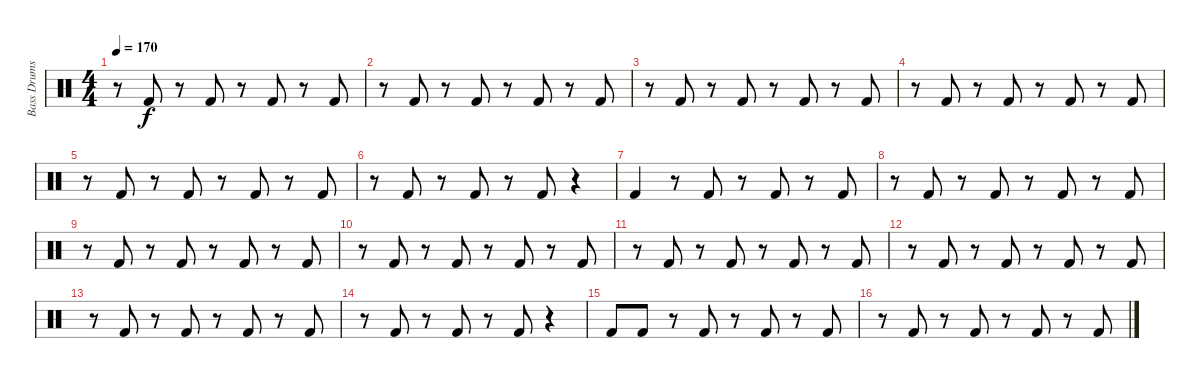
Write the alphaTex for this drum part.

\track ("Bass Drums" "Bass Drums") {instrument percussion}
\staff {score}
\articulation defaults
\ts (4 4)
\tempo 170
\clef neutral
\ks c
r.8{dy f} "Kick (hit) 2".8 r.8 "Kick (hit) 2".8 r.8 "Kick (hit) 2".8 r.8 "Kick (hit) 2".8 |
r.8 "Kick (hit) 2".8 r.8 "Kick (hit) 2".8 r.8 "Kick (hit) 2".8 r.8 "Kick (hit) 2".8 |
r.8 "Kick (hit) 2".8 r.8 "Kick (hit) 2".8 r.8 "Kick (hit) 2".8 r.8 "Kick (hit) 2".8 |
r.8 "Kick (hit) 2".8 r.8 "Kick (hit) 2".8 r.8 "Kick (hit) 2".8 r.8 "Kick (hit) 2".8 |
r.8 "Kick (hit) 2".8 r.8 "Kick (hit) 2".8 r.8 "Kick (hit) 2".8 r.8 "Kick (hit) 2".8 |
r.8 "Kick (hit) 2".8 r.8 "Kick (hit) 2".8 r.8 "Kick (hit) 2".8 r.4 |
"Kick (hit) 2".4 r.8 "Kick (hit) 2".8 r.8 "Kick (hit) 2".8 r.8 "Kick (hit) 2".8 |
r.8 "Kick (hit) 2".8 r.8 "Kick (hit) 2".8 r.8 "Kick (hit) 2".8 r.8 "Kick (hit) 2".8 |
r.8 "Kick (hit) 2".8 r.8 "Kick (hit) 2".8 r.8 "Kick (hit) 2".8 r.8 "Kick (hit) 2".8 |
r.8 "Kick (hit) 2".8 r.8 "Kick (hit) 2".8 r.8 "Kick (hit) 2".8 r.8 "Kick (hit) 2".8 |
r.8 "Kick (hit) 2".8 r.8 "Kick (hit) 2".8 r.8 "Kick (hit) 2".8 r.8 "Kick (hit) 2".8 |
r.8 "Kick (hit) 2".8 r.8 "Kick (hit) 2".8 r.8 "Kick (hit) 2".8 r.8 "Kick (hit) 2".8 |
r.8 "Kick (hit) 2".8 r.8 "Kick (hit) 2".8 r.8 "Kick (hit) 2".8 r.8 "Kick (hit) 2".8 |
r.8 "Kick (hit) 2".8 r.8 "Kick (hit) 2".8 r.8 "Kick (hit) 2".8 r.4 |
"Kick (hit) 2".8 "Kick (hit) 2".8 r.8 "Kick (hit) 2".8 r.8 "Kick (hit) 2".8 r.8 "Kick (hit) 2".8 |
r.8 "Kick (hit) 2".8 r.8 "Kick (hit) 2".8 r.8 "Kick (hit) 2".8 r.8 "Kick (hit) 2".8
